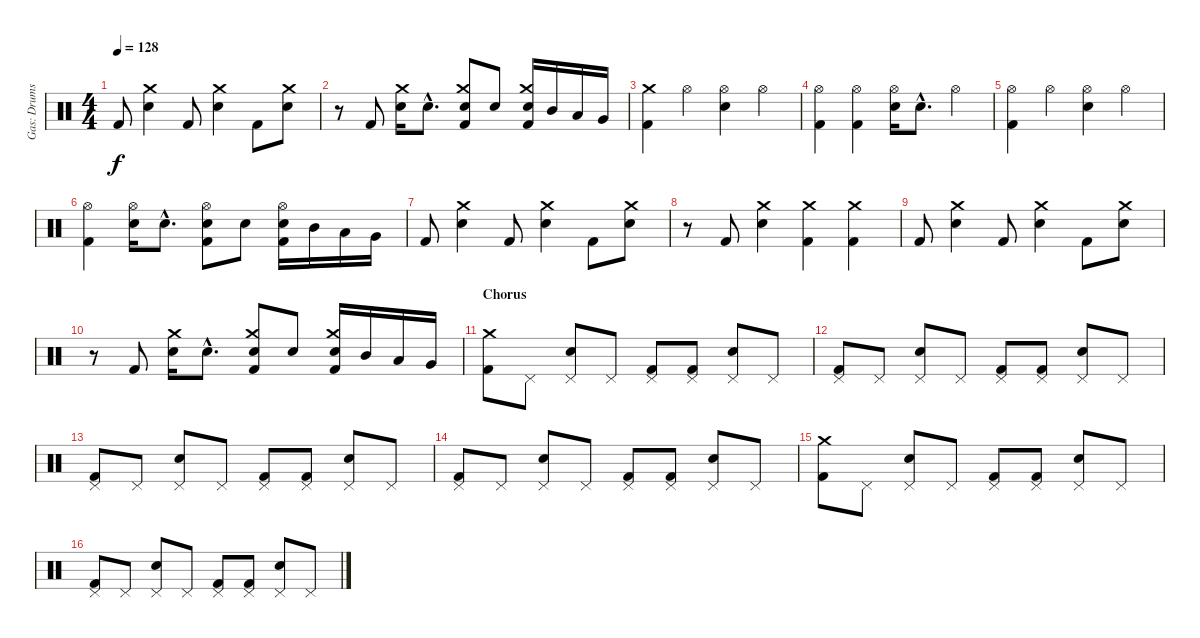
\track ("Gas: Drums" "Gas: Drums") {instrument percussion}
\staff {score}
\articulation defaults
\ts (4 4)
\tempo 128
\clef neutral
\ks c "Kick (hit) 2".8{dy f}
("Crash medium (hit)" "Electric Snare (hit)").4 "Kick (hit) 2".8 ("Crash medium (hit)" "Electric Snare (hit)").4 "Kick (hit) 2".8 ("Crash medium (hit)" "Electric Snare (hit)").8 |
r.8 "Kick (hit) 2".8 ("Crash medium (hit)" "Electric Snare (hit)").16 "Electric Snare (hit)"{hac}.8{d} ("Crash medium (hit)" "Electric Snare (hit)" "Kick (hit) 2").8 "Electric Snare (hit)".8 ("Crash medium (hit)" "Electric Snare (hit)" "Kick (hit) 2").16 "Mid Tom (hit)".16 "Low Tom (hit)".16 "Very Low Tom (hit)".16 |
("Crash medium (hit)" "Kick (hit) 2").4 "Hi-Hat (open)".4 ("Hi-Hat (open)" "Electric Snare (hit)").4 "Hi-Hat (open)".4 |
("Hi-Hat (open)" "Kick (hit) 2").4 ("Hi-Hat (open)" "Kick (hit) 2").4 ("Hi-Hat (open)" "Electric Snare (hit)").16 "Electric Snare (hit)"{hac}.8{d} "Hi-Hat (open)".4 |
("Hi-Hat (open)" "Kick (hit) 2").4 "Hi-Hat (open)".4 ("Hi-Hat (open)" "Electric Snare (hit)").4 "Hi-Hat (open)".4 |
("Hi-Hat (open)" "Kick (hit) 2").4 ("Hi-Hat (open)" "Electric Snare (hit)").16 "Electric Snare (hit)"{hac}.8{d} ("Hi-Hat (open)" "Electric Snare (hit)" "Kick (hit) 2").8 "Electric Snare (hit)".8 ("Hi-Hat (open)" "Electric Snare (hit)" "Kick (hit) 2").16 "Mid Tom (hit)".16 "Low Tom (hit)".16 "Very Low Tom (hit)".16 |
"Kick (hit) 2".8 ("Crash medium (hit)" "Electric Snare (hit)").4 "Kick (hit) 2".8 ("Crash medium (hit)" "Electric Snare (hit)").4 "Kick (hit) 2".8 ("Crash medium (hit)" "Electric Snare (hit)").8 |
r.8 "Kick (hit) 2".8 ("Crash medium (hit)" "Electric Snare (hit)").4 ("Crash medium (hit)" "Kick (hit) 2").4 ("Crash medium (hit)" "Kick (hit) 2").4 |
"Kick (hit) 2".8 ("Crash medium (hit)" "Electric Snare (hit)").4 "Kick (hit) 2".8 ("Crash medium (hit)" "Electric Snare (hit)").4 "Kick (hit) 2".8 ("Crash medium (hit)" "Electric Snare (hit)").8 |
r.8 "Kick (hit) 2".8 ("Crash medium (hit)" "Electric Snare (hit)").16 "Electric Snare (hit)"{hac}.8{d} ("Crash medium (hit)" "Electric Snare (hit)" "Kick (hit) 2").8 "Electric Snare (hit)".8 ("Crash medium (hit)" "Electric Snare (hit)" "Kick (hit) 2").16 "Mid Tom (hit)".16 "Low Tom (hit)".16 "Very Low Tom (hit)".16 |
\section ("" "Chorus")
("Crash medium (hit)" "Kick (hit) 2").8 "Pedal Hi-Hat (hit)".8 ("Pedal Hi-Hat (hit)" "Electric Snare (hit)").8 "Pedal Hi-Hat (hit)".8 ("Pedal Hi-Hat (hit)" "Kick (hit) 2").8 ("Pedal Hi-Hat (hit)" "Kick (hit) 2").8 ("Pedal Hi-Hat (hit)" "Electric Snare (hit)").8 "Pedal Hi-Hat (hit)".8 |
("Pedal Hi-Hat (hit)" "Kick (hit) 2").8 "Pedal Hi-Hat (hit)".8 ("Pedal Hi-Hat (hit)" "Electric Snare (hit)").8 "Pedal Hi-Hat (hit)".8 ("Pedal Hi-Hat (hit)" "Kick (hit) 2").8 ("Pedal Hi-Hat (hit)" "Kick (hit) 2").8 ("Pedal Hi-Hat (hit)" "Electric Snare (hit)").8 "Pedal Hi-Hat (hit)".8 |
("Pedal Hi-Hat (hit)" "Kick (hit) 2").8 "Pedal Hi-Hat (hit)".8 ("Pedal Hi-Hat (hit)" "Electric Snare (hit)").8 "Pedal Hi-Hat (hit)".8 ("Pedal Hi-Hat (hit)" "Kick (hit) 2").8 ("Pedal Hi-Hat (hit)" "Kick (hit) 2").8 ("Pedal Hi-Hat (hit)" "Electric Snare (hit)").8 "Pedal Hi-Hat (hit)".8 |
("Pedal Hi-Hat (hit)" "Kick (hit) 2").8 "Pedal Hi-Hat (hit)".8 ("Pedal Hi-Hat (hit)" "Electric Snare (hit)").8 "Pedal Hi-Hat (hit)".8 ("Pedal Hi-Hat (hit)" "Kick (hit) 2").8 ("Pedal Hi-Hat (hit)" "Kick (hit) 2").8 ("Pedal Hi-Hat (hit)" "Electric Snare (hit)").8 "Pedal Hi-Hat (hit)".8 |
("Crash medium (hit)" "Kick (hit) 2").8 "Pedal Hi-Hat (hit)".8 ("Pedal Hi-Hat (hit)" "Electric Snare (hit)").8 "Pedal Hi-Hat (hit)".8 ("Pedal Hi-Hat (hit)" "Kick (hit) 2").8 ("Pedal Hi-Hat (hit)" "Kick (hit) 2").8 ("Pedal Hi-Hat (hit)" "Electric Snare (hit)").8 "Pedal Hi-Hat (hit)".8 |
("Pedal Hi-Hat (hit)" "Kick (hit) 2").8 "Pedal Hi-Hat (hit)".8 ("Pedal Hi-Hat (hit)" "Electric Snare (hit)").8 "Pedal Hi-Hat (hit)".8 ("Pedal Hi-Hat (hit)" "Kick (hit) 2").8 ("Pedal Hi-Hat (hit)" "Kick (hit) 2").8 ("Pedal Hi-Hat (hit)" "Electric Snare (hit)").8 "Pedal Hi-Hat (hit)".8
